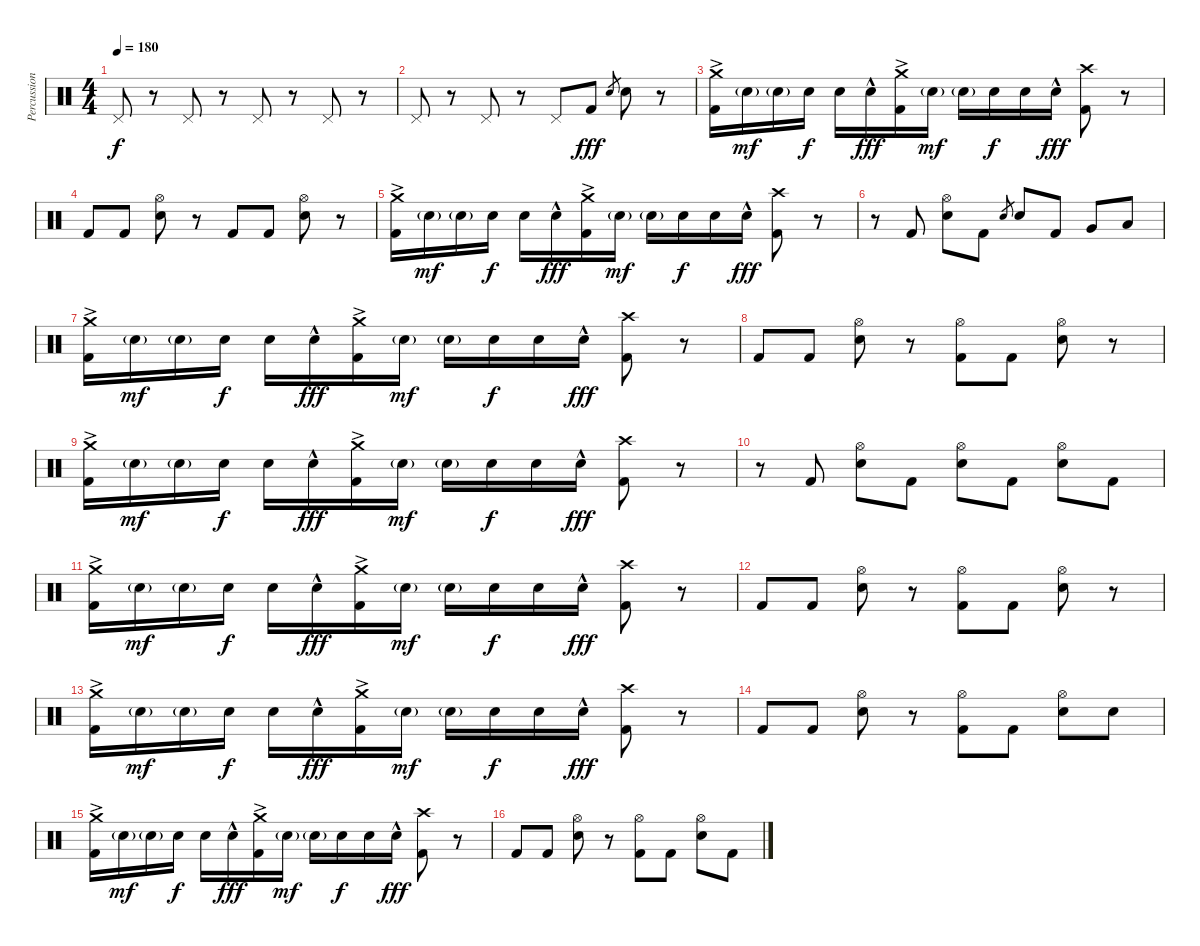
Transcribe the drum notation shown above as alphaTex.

\track ("Percussions" "Percussion") {mute instrument percussion}
\staff {score}
\articulation defaults
\ts (4 4)
\tempo 180
\clef neutral
\ks c "Pedal Hi-Hat (hit)".8{dy f}
r.8 "Pedal Hi-Hat (hit)".8 r.8 "Pedal Hi-Hat (hit)".8 r.8 "Pedal Hi-Hat (hit)".8 r.8 |
"Pedal Hi-Hat (hit)".8 r.8 "Pedal Hi-Hat (hit)".8 r.8 "Pedal Hi-Hat (hit)".8 "Kick (hit) 2".8{dy fff} "Electric Snare (hit)".8{gr} "Electric Snare (hit)".8 r.8 |
("Crash medium (hit)"{ac} "Kick (hit) 2").16 "Electric Snare (hit)"{g}.16{dy mf} "Electric Snare (hit)"{g}.16 "Electric Snare (hit)".16{dy f} "Electric Snare (hit)".16 "Electric Snare (hit)"{hac}.16{dy fff} ("Crash medium (hit)"{ac} "Kick (hit) 2").16 "Electric Snare (hit)"{g}.16{dy mf} "Electric Snare (hit)"{g}.16 "Electric Snare (hit)".16{dy f} "Electric Snare (hit)".16 "Electric Snare (hit)"{hac}.16{dy fff} ("Crash high (hit)" "Kick (hit) 2").8 r.8 |
"Kick (hit) 2".8 "Kick (hit) 2".8 ("Hi-Hat (open)" "Electric Snare (hit)").8 r.8 "Kick (hit) 2".8 "Kick (hit) 2".8 ("Hi-Hat (open)" "Electric Snare (hit)").8 r.8 |
("Crash medium (hit)"{ac} "Kick (hit) 2").16 "Electric Snare (hit)"{g}.16{dy mf} "Electric Snare (hit)"{g}.16 "Electric Snare (hit)".16{dy f} "Electric Snare (hit)".16 "Electric Snare (hit)"{hac}.16{dy fff} ("Crash medium (hit)"{ac} "Kick (hit) 2").16 "Electric Snare (hit)"{g}.16{dy mf} "Electric Snare (hit)"{g}.16 "Electric Snare (hit)".16{dy f} "Electric Snare (hit)".16 "Electric Snare (hit)"{hac}.16{dy fff} ("Crash high (hit)" "Kick (hit) 2").8 r.8 |
r.8 "Kick (hit) 2".8 ("Hi-Hat (open)" "Electric Snare (hit)").8 "Kick (hit) 2".8 "Electric Snare (hit)".8{gr} "Electric Snare (hit)".8 "Kick (hit) 2".8 "Very Low Tom (hit)".8 "Low Floor Tom (hit)".8 |
("Crash medium (hit)"{ac} "Kick (hit) 2").16 "Electric Snare (hit)"{g}.16{dy mf} "Electric Snare (hit)"{g}.16 "Electric Snare (hit)".16{dy f} "Electric Snare (hit)".16 "Electric Snare (hit)"{hac}.16{dy fff} ("Crash medium (hit)"{ac} "Kick (hit) 2").16 "Electric Snare (hit)"{g}.16{dy mf} "Electric Snare (hit)"{g}.16 "Electric Snare (hit)".16{dy f} "Electric Snare (hit)".16 "Electric Snare (hit)"{hac}.16{dy fff} ("Crash high (hit)" "Kick (hit) 2").8 r.8 |
"Kick (hit) 2".8 "Kick (hit) 2".8 ("Hi-Hat (open)" "Electric Snare (hit)").8 r.8 ("Hi-Hat (open)" "Kick (hit) 2").8 "Kick (hit) 2".8 ("Hi-Hat (open)" "Electric Snare (hit)").8 r.8 |
("Crash medium (hit)"{ac} "Kick (hit) 2").16 "Electric Snare (hit)"{g}.16{dy mf} "Electric Snare (hit)"{g}.16 "Electric Snare (hit)".16{dy f} "Electric Snare (hit)".16 "Electric Snare (hit)"{hac}.16{dy fff} ("Crash medium (hit)"{ac} "Kick (hit) 2").16 "Electric Snare (hit)"{g}.16{dy mf} "Electric Snare (hit)"{g}.16 "Electric Snare (hit)".16{dy f} "Electric Snare (hit)".16 "Electric Snare (hit)"{hac}.16{dy fff} ("Crash high (hit)" "Kick (hit) 2").8 r.8 |
r.8 "Kick (hit) 2".8 ("Hi-Hat (open)" "Electric Snare (hit)").8 "Kick (hit) 2".8 ("Hi-Hat (open)" "Electric Snare (hit)").8 "Kick (hit) 2".8 ("Hi-Hat (open)" "Electric Snare (hit)").8 "Kick (hit) 2".8 |
("Crash medium (hit)"{ac} "Kick (hit) 2").16 "Electric Snare (hit)"{g}.16{dy mf} "Electric Snare (hit)"{g}.16 "Electric Snare (hit)".16{dy f} "Electric Snare (hit)".16 "Electric Snare (hit)"{hac}.16{dy fff} ("Crash medium (hit)"{ac} "Kick (hit) 2").16 "Electric Snare (hit)"{g}.16{dy mf} "Electric Snare (hit)"{g}.16 "Electric Snare (hit)".16{dy f} "Electric Snare (hit)".16 "Electric Snare (hit)"{hac}.16{dy fff} ("Crash high (hit)" "Kick (hit) 2").8 r.8 |
"Kick (hit) 2".8 "Kick (hit) 2".8 ("Hi-Hat (open)" "Electric Snare (hit)").8 r.8 ("Hi-Hat (open)" "Kick (hit) 2").8 "Kick (hit) 2".8 ("Hi-Hat (open)" "Electric Snare (hit)").8 r.8 |
("Crash medium (hit)"{ac} "Kick (hit) 2").16 "Electric Snare (hit)"{g}.16{dy mf} "Electric Snare (hit)"{g}.16 "Electric Snare (hit)".16{dy f} "Electric Snare (hit)".16 "Electric Snare (hit)"{hac}.16{dy fff} ("Crash medium (hit)"{ac} "Kick (hit) 2").16 "Electric Snare (hit)"{g}.16{dy mf} "Electric Snare (hit)"{g}.16 "Electric Snare (hit)".16{dy f} "Electric Snare (hit)".16 "Electric Snare (hit)"{hac}.16{dy fff} ("Crash high (hit)" "Kick (hit) 2").8 r.8 |
"Kick (hit) 2".8 "Kick (hit) 2".8 ("Hi-Hat (open)" "Electric Snare (hit)").8 r.8 ("Hi-Hat (open)" "Kick (hit) 2").8 "Kick (hit) 2".8 ("Hi-Hat (open)" "Electric Snare (hit)").8 "Electric Snare (hit)".8 |
("Crash medium (hit)"{ac} "Kick (hit) 2").16 "Electric Snare (hit)"{g}.16{dy mf} "Electric Snare (hit)"{g}.16 "Electric Snare (hit)".16{dy f} "Electric Snare (hit)".16 "Electric Snare (hit)"{hac}.16{dy fff} ("Crash medium (hit)"{ac} "Kick (hit) 2").16 "Electric Snare (hit)"{g}.16{dy mf} "Electric Snare (hit)"{g}.16 "Electric Snare (hit)".16{dy f} "Electric Snare (hit)".16 "Electric Snare (hit)"{hac}.16{dy fff} ("Crash high (hit)" "Kick (hit) 2").8 r.8 |
"Kick (hit) 2".8 "Kick (hit) 2".8 ("Hi-Hat (open)" "Electric Snare (hit)").8 r.8 ("Hi-Hat (open)" "Kick (hit) 2").8 "Kick (hit) 2".8 ("Hi-Hat (open)" "Electric Snare (hit)").8 "Kick (hit) 2".8
